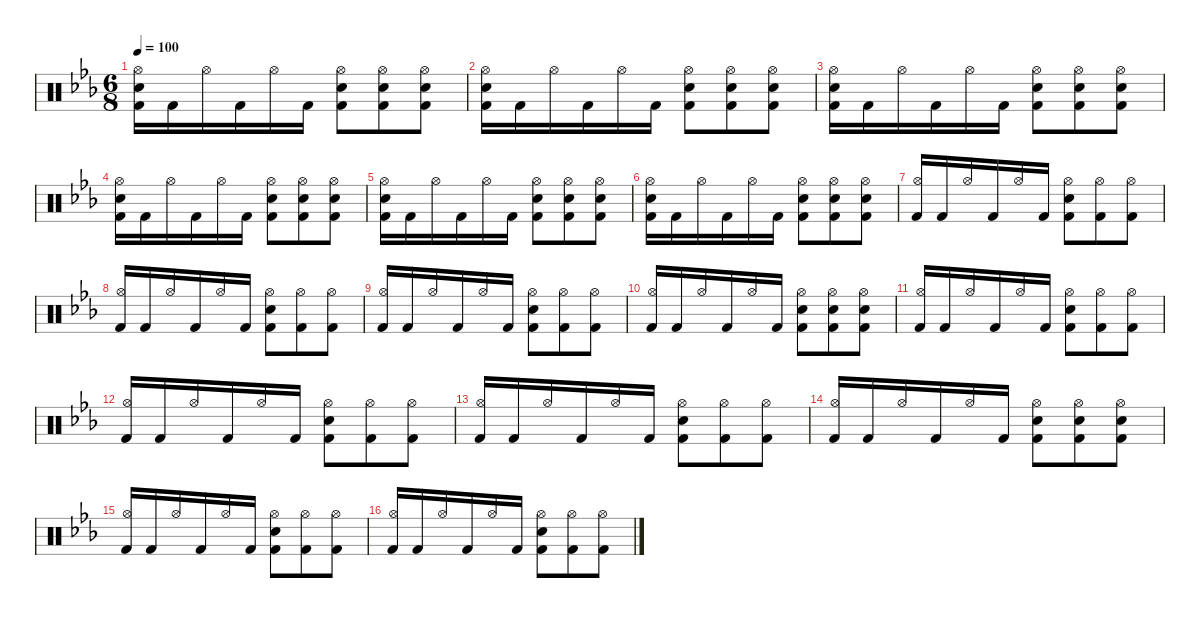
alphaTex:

\defaultSystemsLayout 4
\hideDynamics
\bracketExtendMode nobrackets
\singleTrackTrackNamePolicy hidden
\multiTrackTrackNamePolicy hidden
\firstSystemTrackNameMode fullname
\firstSystemTrackNameOrientation horizontal
\otherSystemsTrackNameOrientation horizontal
\track ("Drums" "drm.") {instrument percussion}
\staff {score}
\articulation defaults
\ts (6 8)
\tempo 100
\clef neutral
\ks eb
("Hi-Hat (open)"{acc forcenatural} "Snare (hit) 2"{acc forcenatural} "Kick (hit) 2"{acc forcenatural}).16{dy f beam Down} "Kick (hit) 2"{acc forcenatural}.16{beam Down} "Hi-Hat (open)"{acc forcenatural}.16{beam Down} "Kick (hit) 2"{acc forcenatural}.16{beam Down} "Hi-Hat (open)"{acc forcenatural}.16{beam Down} "Kick (hit) 2"{acc forcenatural}.16{beam Down} ("Hi-Hat (open)"{acc forcenatural} "Snare (hit) 2"{acc forcenatural} "Kick (hit) 2"{acc forcenatural}).8{beam Down} ("Hi-Hat (open)"{acc forcenatural} "Snare (hit) 2"{acc forcenatural} "Kick (hit) 2"{acc forcenatural}).8{beam Down} ("Hi-Hat (open)"{acc forcenatural} "Snare (hit) 2"{acc forcenatural} "Kick (hit) 2"{acc forcenatural}).8{beam Down} |
("Hi-Hat (open)"{acc forcenatural} "Snare (hit) 2"{acc forcenatural} "Kick (hit) 2"{acc forcenatural}).16{beam Down} "Kick (hit) 2"{acc forcenatural}.16{beam Down} "Hi-Hat (open)"{acc forcenatural}.16{beam Down} "Kick (hit) 2"{acc forcenatural}.16{beam Down} "Hi-Hat (open)"{acc forcenatural}.16{beam Down} "Kick (hit) 2"{acc forcenatural}.16{beam Down} ("Hi-Hat (open)"{acc forcenatural} "Snare (hit) 2"{acc forcenatural} "Kick (hit) 2"{acc forcenatural}).8{beam Down} ("Hi-Hat (open)"{acc forcenatural} "Snare (hit) 2"{acc forcenatural} "Kick (hit) 2"{acc forcenatural}).8{beam Down} ("Hi-Hat (open)"{acc forcenatural} "Snare (hit) 2"{acc forcenatural} "Kick (hit) 2"{acc forcenatural}).8{beam Down} |
("Hi-Hat (open)"{acc forcenatural} "Snare (hit) 2"{acc forcenatural} "Kick (hit) 2"{acc forcenatural}).16{beam Down} "Kick (hit) 2"{acc forcenatural}.16{beam Down} "Hi-Hat (open)"{acc forcenatural}.16{beam Down} "Kick (hit) 2"{acc forcenatural}.16{beam Down} "Hi-Hat (open)"{acc forcenatural}.16{beam Down} "Kick (hit) 2"{acc forcenatural}.16{beam Down} ("Hi-Hat (open)"{acc forcenatural} "Snare (hit) 2"{acc forcenatural} "Kick (hit) 2"{acc forcenatural}).8{beam Down} ("Hi-Hat (open)"{acc forcenatural} "Snare (hit) 2"{acc forcenatural} "Kick (hit) 2"{acc forcenatural}).8{beam Down} ("Hi-Hat (open)"{acc forcenatural} "Snare (hit) 2"{acc forcenatural} "Kick (hit) 2"{acc forcenatural}).8{beam Down} |
("Hi-Hat (open)"{acc forcenatural} "Snare (hit) 2"{acc forcenatural} "Kick (hit) 2"{acc forcenatural}).16{beam Down} "Kick (hit) 2"{acc forcenatural}.16{beam Down} "Hi-Hat (open)"{acc forcenatural}.16{beam Down} "Kick (hit) 2"{acc forcenatural}.16{beam Down} "Hi-Hat (open)"{acc forcenatural}.16{beam Down} "Kick (hit) 2"{acc forcenatural}.16{beam Down} ("Hi-Hat (open)"{acc forcenatural} "Snare (hit) 2"{acc forcenatural} "Kick (hit) 2"{acc forcenatural}).8{beam Down} ("Hi-Hat (open)"{acc forcenatural} "Snare (hit) 2"{acc forcenatural} "Kick (hit) 2"{acc forcenatural}).8{beam Down} ("Hi-Hat (open)"{acc forcenatural} "Snare (hit) 2"{acc forcenatural} "Kick (hit) 2"{acc forcenatural}).8{beam Down} |
("Hi-Hat (open)"{acc forcenatural} "Snare (hit) 2"{acc forcenatural} "Kick (hit) 2"{acc forcenatural}).16{beam Down} "Kick (hit) 2"{acc forcenatural}.16{beam Down} "Hi-Hat (open)"{acc forcenatural}.16{beam Down} "Kick (hit) 2"{acc forcenatural}.16{beam Down} "Hi-Hat (open)"{acc forcenatural}.16{beam Down} "Kick (hit) 2"{acc forcenatural}.16{beam Down} ("Hi-Hat (open)"{acc forcenatural} "Snare (hit) 2"{acc forcenatural} "Kick (hit) 2"{acc forcenatural}).8{beam Down} ("Hi-Hat (open)"{acc forcenatural} "Snare (hit) 2"{acc forcenatural} "Kick (hit) 2"{acc forcenatural}).8{beam Down} ("Hi-Hat (open)"{acc forcenatural} "Snare (hit) 2"{acc forcenatural} "Kick (hit) 2"{acc forcenatural}).8{beam Down} |
("Hi-Hat (open)"{acc forcenatural} "Snare (hit) 2"{acc forcenatural} "Kick (hit) 2"{acc forcenatural}).16{beam Down} "Kick (hit) 2"{acc forcenatural}.16{beam Down} "Hi-Hat (open)"{acc forcenatural}.16{beam Down} "Kick (hit) 2"{acc forcenatural}.16{beam Down} "Hi-Hat (open)"{acc forcenatural}.16{beam Down} "Kick (hit) 2"{acc forcenatural}.16{beam Down} ("Hi-Hat (open)"{acc forcenatural} "Snare (hit) 2"{acc forcenatural} "Kick (hit) 2"{acc forcenatural}).8{beam Down} ("Hi-Hat (open)"{acc forcenatural} "Snare (hit) 2"{acc forcenatural} "Kick (hit) 2"{acc forcenatural}).8{beam Down} ("Hi-Hat (open)"{acc forcenatural} "Snare (hit) 2"{acc forcenatural} "Kick (hit) 2"{acc forcenatural}).8{beam Down} |
("Hi-Hat (open)"{acc forcenatural} "Kick (hit) 2"{acc forcenatural}).16{beam Up} "Kick (hit) 2"{acc forcenatural}.16{beam Up} "Hi-Hat (open)"{acc forcenatural}.16{beam Up} "Kick (hit) 2"{acc forcenatural}.16{beam Up} "Hi-Hat (open)"{acc forcenatural}.16{beam Down} "Kick (hit) 2"{acc forcenatural}.16{beam Down} ("Hi-Hat (open)"{acc forcenatural} "Snare (hit) 2"{acc forcenatural} "Kick (hit) 2"{acc forcenatural}).8{beam Down} ("Hi-Hat (open)"{acc forcenatural} "Kick (hit) 2"{acc forcenatural}).8{beam Down} ("Hi-Hat (open)"{acc forcenatural} "Kick (hit) 2"{acc forcenatural}).8{beam Down} |
("Hi-Hat (open)"{acc forcenatural} "Kick (hit) 2"{acc forcenatural}).16{beam Up} "Kick (hit) 2"{acc forcenatural}.16{beam Up} "Hi-Hat (open)"{acc forcenatural}.16{beam Up} "Kick (hit) 2"{acc forcenatural}.16{beam Up} "Hi-Hat (open)"{acc forcenatural}.16{beam Down} "Kick (hit) 2"{acc forcenatural}.16{beam Down} ("Hi-Hat (open)"{acc forcenatural} "Snare (hit) 2"{acc forcenatural} "Kick (hit) 2"{acc forcenatural}).8{beam Down} ("Hi-Hat (open)"{acc forcenatural} "Kick (hit) 2"{acc forcenatural}).8{beam Down} ("Hi-Hat (open)"{acc forcenatural} "Kick (hit) 2"{acc forcenatural}).8{beam Down} |
("Hi-Hat (open)"{acc forcenatural} "Kick (hit) 2"{acc forcenatural}).16{beam Up} "Kick (hit) 2"{acc forcenatural}.16{beam Up} "Hi-Hat (open)"{acc forcenatural}.16{beam Up} "Kick (hit) 2"{acc forcenatural}.16{beam Up} "Hi-Hat (open)"{acc forcenatural}.16{beam Down} "Kick (hit) 2"{acc forcenatural}.16{beam Down} ("Hi-Hat (open)"{acc forcenatural} "Snare (hit) 2"{acc forcenatural} "Kick (hit) 2"{acc forcenatural}).8{beam Down} ("Hi-Hat (open)"{acc forcenatural} "Kick (hit) 2"{acc forcenatural}).8{beam Down} ("Hi-Hat (open)"{acc forcenatural} "Kick (hit) 2"{acc forcenatural}).8{beam Down} |
("Hi-Hat (open)"{acc forcenatural} "Kick (hit) 2"{acc forcenatural}).16{beam Up} "Kick (hit) 2"{acc forcenatural}.16{beam Up} "Hi-Hat (open)"{acc forcenatural}.16{beam Up} "Kick (hit) 2"{acc forcenatural}.16{beam Up} "Hi-Hat (open)"{acc forcenatural}.16{beam Down} "Kick (hit) 2"{acc forcenatural}.16{beam Down} ("Hi-Hat (open)"{acc forcenatural} "Snare (hit) 2"{acc forcenatural} "Kick (hit) 2"{acc forcenatural}).8{beam Down} ("Hi-Hat (open)"{acc forcenatural} "Snare (hit) 2"{acc forcenatural} "Kick (hit) 2"{acc forcenatural}).8{beam Down} ("Hi-Hat (open)"{acc forcenatural} "Snare (hit) 2"{acc forcenatural} "Kick (hit) 2"{acc forcenatural}).8{beam Down} |
("Hi-Hat (open)"{acc forcenatural} "Kick (hit) 2"{acc forcenatural}).16{beam Up} "Kick (hit) 2"{acc forcenatural}.16{beam Up} "Hi-Hat (open)"{acc forcenatural}.16{beam Up} "Kick (hit) 2"{acc forcenatural}.16{beam Up} "Hi-Hat (open)"{acc forcenatural}.16{beam Down} "Kick (hit) 2"{acc forcenatural}.16{beam Down} ("Hi-Hat (open)"{acc forcenatural} "Snare (hit) 2"{acc forcenatural} "Kick (hit) 2"{acc forcenatural}).8{beam Down} ("Hi-Hat (open)"{acc forcenatural} "Kick (hit) 2"{acc forcenatural}).8{beam Down} ("Hi-Hat (open)"{acc forcenatural} "Kick (hit) 2"{acc forcenatural}).8{beam Down} |
("Hi-Hat (open)"{acc forcenatural} "Kick (hit) 2"{acc forcenatural}).16{beam Up} "Kick (hit) 2"{acc forcenatural}.16{beam Up} "Hi-Hat (open)"{acc forcenatural}.16{beam Up} "Kick (hit) 2"{acc forcenatural}.16{beam Up} "Hi-Hat (open)"{acc forcenatural}.16{beam Down} "Kick (hit) 2"{acc forcenatural}.16{beam Down} ("Hi-Hat (open)"{acc forcenatural} "Snare (hit) 2"{acc forcenatural} "Kick (hit) 2"{acc forcenatural}).8{beam Down} ("Hi-Hat (open)"{acc forcenatural} "Kick (hit) 2"{acc forcenatural}).8{beam Down} ("Hi-Hat (open)"{acc forcenatural} "Kick (hit) 2"{acc forcenatural}).8{beam Down} |
("Hi-Hat (open)"{acc forcenatural} "Kick (hit) 2"{acc forcenatural}).16{beam Up} "Kick (hit) 2"{acc forcenatural}.16{beam Up} "Hi-Hat (open)"{acc forcenatural}.16{beam Up} "Kick (hit) 2"{acc forcenatural}.16{beam Up} "Hi-Hat (open)"{acc forcenatural}.16{beam Down} "Kick (hit) 2"{acc forcenatural}.16{beam Down} ("Hi-Hat (open)"{acc forcenatural} "Snare (hit) 2"{acc forcenatural} "Kick (hit) 2"{acc forcenatural}).8{beam Down} ("Hi-Hat (open)"{acc forcenatural} "Kick (hit) 2"{acc forcenatural}).8{beam Down} ("Hi-Hat (open)"{acc forcenatural} "Kick (hit) 2"{acc forcenatural}).8{beam Down} |
("Hi-Hat (open)"{acc forcenatural} "Kick (hit) 2"{acc forcenatural}).16{beam Up} "Kick (hit) 2"{acc forcenatural}.16{beam Up} "Hi-Hat (open)"{acc forcenatural}.16{beam Up} "Kick (hit) 2"{acc forcenatural}.16{beam Up} "Hi-Hat (open)"{acc forcenatural}.16{beam Down} "Kick (hit) 2"{acc forcenatural}.16{beam Down} ("Hi-Hat (open)"{acc forcenatural} "Snare (hit) 2"{acc forcenatural} "Kick (hit) 2"{acc forcenatural}).8{beam Down} ("Hi-Hat (open)"{acc forcenatural} "Snare (hit) 2"{acc forcenatural} "Kick (hit) 2"{acc forcenatural}).8{beam Down} ("Hi-Hat (open)"{acc forcenatural} "Snare (hit) 2"{acc forcenatural} "Kick (hit) 2"{acc forcenatural}).8{beam Down} |
("Hi-Hat (open)"{acc forcenatural} "Kick (hit) 2"{acc forcenatural}).16{beam Up} "Kick (hit) 2"{acc forcenatural}.16{beam Up} "Hi-Hat (open)"{acc forcenatural}.16{beam Up} "Kick (hit) 2"{acc forcenatural}.16{beam Up} "Hi-Hat (open)"{acc forcenatural}.16{beam Down} "Kick (hit) 2"{acc forcenatural}.16{beam Down} ("Hi-Hat (open)"{acc forcenatural} "Snare (hit) 2"{acc forcenatural} "Kick (hit) 2"{acc forcenatural}).8{beam Down} ("Hi-Hat (open)"{acc forcenatural} "Kick (hit) 2"{acc forcenatural}).8{beam Down} ("Hi-Hat (open)"{acc forcenatural} "Kick (hit) 2"{acc forcenatural}).8{beam Down} |
("Hi-Hat (open)"{acc forcenatural} "Kick (hit) 2"{acc forcenatural}).16{beam Up} "Kick (hit) 2"{acc forcenatural}.16{beam Up} "Hi-Hat (open)"{acc forcenatural}.16{beam Up} "Kick (hit) 2"{acc forcenatural}.16{beam Up} "Hi-Hat (open)"{acc forcenatural}.16{beam Down} "Kick (hit) 2"{acc forcenatural}.16{beam Down} ("Hi-Hat (open)"{acc forcenatural} "Snare (hit) 2"{acc forcenatural} "Kick (hit) 2"{acc forcenatural}).8{beam Down} ("Hi-Hat (open)"{acc forcenatural} "Kick (hit) 2"{acc forcenatural}).8{beam Down} ("Hi-Hat (open)"{acc forcenatural} "Kick (hit) 2"{acc forcenatural}).8{beam Down}
